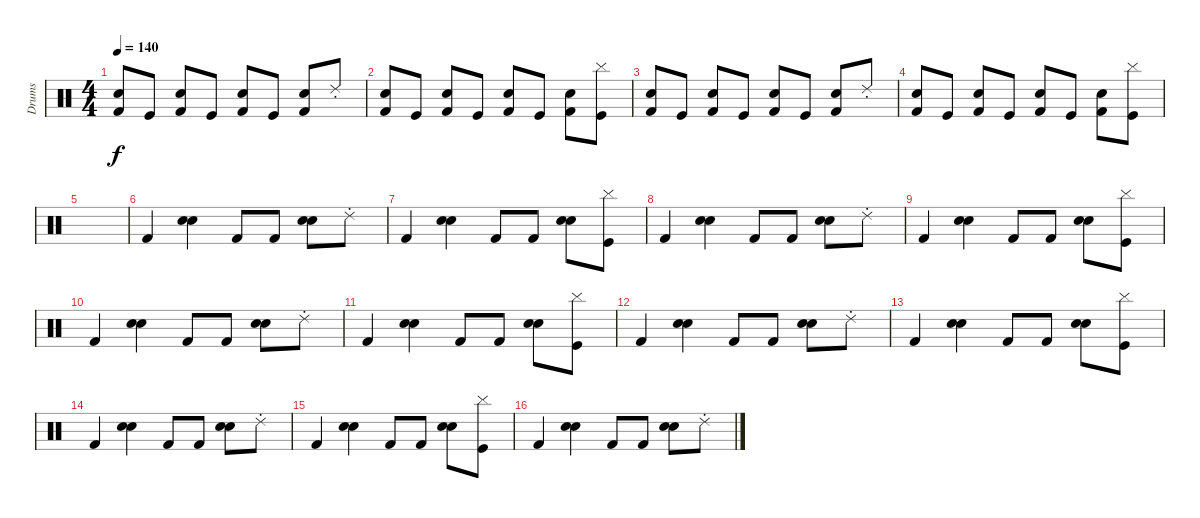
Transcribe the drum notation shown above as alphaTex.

\track ("Drums" "Drums") {instrument percussion}
\staff {score}
\articulation defaults
\ts (4 4)
\tempo 140
\clef neutral
\ks c
("Kick (hit) 2" "Hand Clap (hit)").8{dy f} "Kick (hit)".8 ("Kick (hit) 2" "Hand Clap (hit)").8 "Kick (hit)".8 ("Kick (hit) 2" "Hand Clap (hit)").8 "Kick (hit)".8 ("Kick (hit) 2" "Hand Clap (hit)").8 "Ride (choke) 2".8 |
("Kick (hit) 2" "Hand Clap (hit)").8 "Kick (hit)".8 ("Kick (hit) 2" "Hand Clap (hit)").8 "Kick (hit)".8 ("Kick (hit) 2" "Hand Clap (hit)").8 "Kick (hit)".8 ("Kick (hit) 2" "Hand Clap (hit)").8 ("Kick (hit)" "Cymbal (hit)").8 |
("Kick (hit) 2" "Hand Clap (hit)").8 "Kick (hit)".8 ("Kick (hit) 2" "Hand Clap (hit)").8 "Kick (hit)".8 ("Kick (hit) 2" "Hand Clap (hit)").8 "Kick (hit)".8 ("Kick (hit) 2" "Hand Clap (hit)").8 "Ride (choke) 2".8 |
("Kick (hit) 2" "Hand Clap (hit)").8 "Kick (hit)".8 ("Kick (hit) 2" "Hand Clap (hit)").8 "Kick (hit)".8 ("Kick (hit) 2" "Hand Clap (hit)").8 "Kick (hit)".8 ("Kick (hit) 2" "Hand Clap (hit)").8 ("Kick (hit)" "Cymbal (hit)").8 |
|
"Kick (hit) 2".4 ("Hand Clap (hit)" "Electric Snare (hit)").4 "Kick (hit) 2".8 "Kick (hit) 2".8 ("Hand Clap (hit)" "Electric Snare (hit)").8 "Ride (choke) 2".8 |
"Kick (hit) 2".4 ("Hand Clap (hit)" "Electric Snare (hit)").4 "Kick (hit) 2".8 "Kick (hit) 2".8 ("Hand Clap (hit)" "Electric Snare (hit)").8 ("Kick (hit)" "Cymbal (hit)").8 |
"Kick (hit) 2".4 ("Hand Clap (hit)" "Electric Snare (hit)").4 "Kick (hit) 2".8 "Kick (hit) 2".8 ("Hand Clap (hit)" "Electric Snare (hit)").8 "Ride (choke) 2".8 |
"Kick (hit) 2".4 ("Hand Clap (hit)" "Electric Snare (hit)").4 "Kick (hit) 2".8 "Kick (hit) 2".8 ("Hand Clap (hit)" "Electric Snare (hit)").8 ("Kick (hit)" "Cymbal (hit)").8 |
"Kick (hit) 2".4 ("Hand Clap (hit)" "Electric Snare (hit)").4 "Kick (hit) 2".8 "Kick (hit) 2".8 ("Hand Clap (hit)" "Electric Snare (hit)").8 "Ride (choke) 2".8 |
"Kick (hit) 2".4 ("Hand Clap (hit)" "Electric Snare (hit)").4 "Kick (hit) 2".8 "Kick (hit) 2".8 ("Hand Clap (hit)" "Electric Snare (hit)").8 ("Kick (hit)" "Cymbal (hit)").8 |
"Kick (hit) 2".4 ("Hand Clap (hit)" "Electric Snare (hit)").4 "Kick (hit) 2".8 "Kick (hit) 2".8 ("Hand Clap (hit)" "Electric Snare (hit)").8 "Ride (choke) 2".8 |
"Kick (hit) 2".4 ("Hand Clap (hit)" "Electric Snare (hit)").4 "Kick (hit) 2".8 "Kick (hit) 2".8 ("Hand Clap (hit)" "Electric Snare (hit)").8 ("Kick (hit)" "Cymbal (hit)").8 |
"Kick (hit) 2".4 ("Hand Clap (hit)" "Electric Snare (hit)").4 "Kick (hit) 2".8 "Kick (hit) 2".8 ("Hand Clap (hit)" "Electric Snare (hit)").8 "Ride (choke) 2".8 |
"Kick (hit) 2".4 ("Hand Clap (hit)" "Electric Snare (hit)").4 "Kick (hit) 2".8 "Kick (hit) 2".8 ("Hand Clap (hit)" "Electric Snare (hit)").8 ("Kick (hit)" "Cymbal (hit)").8 |
"Kick (hit) 2".4 ("Hand Clap (hit)" "Electric Snare (hit)").4 "Kick (hit) 2".8 "Kick (hit) 2".8 ("Hand Clap (hit)" "Electric Snare (hit)").8 "Ride (choke) 2".8
